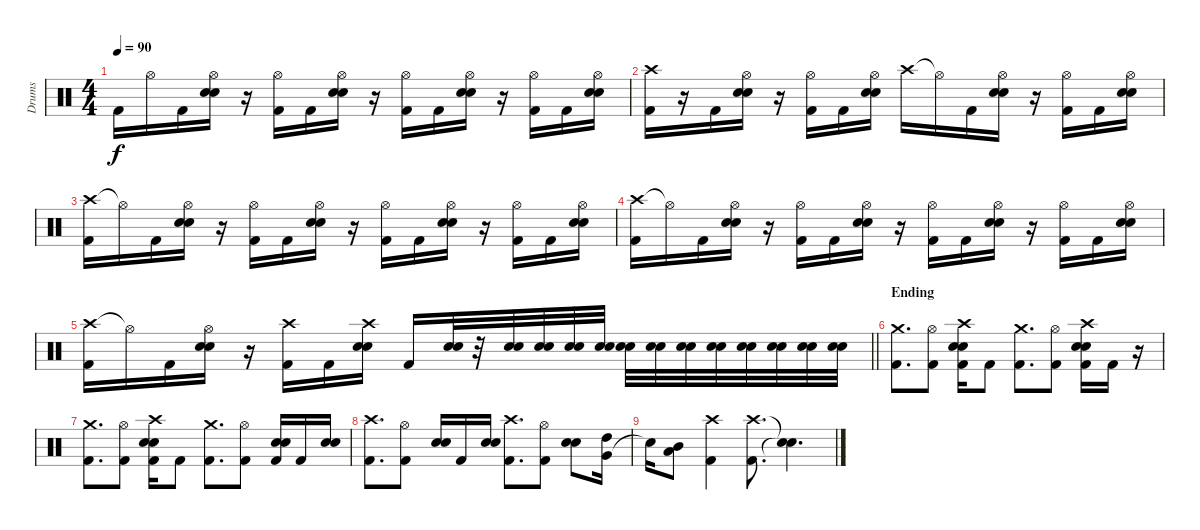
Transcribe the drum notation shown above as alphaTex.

\track ("Drums" "Drums") {instrument percussion}
\staff {score}
\articulation defaults
\ts (4 4)
\tempo 90
\clef neutral
\ks c "Kick (hit) 2".16{dy f} "Hi-Hat (open)".16 "Kick (hit) 2".16
("Hi-Hat (open)" "Snare (hit) 2" "Snare (hit) 2").16 r.16 ("Hi-Hat (open)" "Kick (hit) 2").16 "Kick (hit) 2".16 ("Hi-Hat (open)" "Snare (hit) 2" "Snare (hit) 2").16 r.16 ("Hi-Hat (open)" "Kick (hit) 2").16 "Kick (hit) 2".16 ("Hi-Hat (open)" "Snare (hit) 2" "Snare (hit) 2").16 r.16 ("Hi-Hat (open)" "Kick (hit) 2").16 "Kick (hit) 2".16 ("Hi-Hat (open)" "Snare (hit) 2" "Snare (hit) 2").16 |
("Crash high (hit)" "Kick (hit) 2").16 r.16 "Kick (hit) 2".16 ("Hi-Hat (open)" "Snare (hit) 2" "Snare (hit) 2").16 r.16 ("Hi-Hat (open)" "Kick (hit) 2").16 "Kick (hit) 2".16 ("Hi-Hat (open)" "Snare (hit) 2" "Snare (hit) 2").16 "Crash high (hit)".16 "Hi-Hat (open)"{t}.16 "Kick (hit) 2".16 ("Hi-Hat (open)" "Snare (hit) 2" "Snare (hit) 2").16 r.16 ("Hi-Hat (open)" "Kick (hit) 2").16 "Kick (hit) 2".16 ("Hi-Hat (open)" "Snare (hit) 2" "Snare (hit) 2").16 |
("Crash high (hit)" "Kick (hit) 2").16 "Hi-Hat (open)"{t}.16 "Kick (hit) 2".16 ("Hi-Hat (open)" "Snare (hit) 2" "Snare (hit) 2").16 r.16 ("Hi-Hat (open)" "Kick (hit) 2").16 "Kick (hit) 2".16 ("Hi-Hat (open)" "Snare (hit) 2" "Snare (hit) 2").16 r.16 ("Hi-Hat (open)" "Kick (hit) 2").16 "Kick (hit) 2".16 ("Hi-Hat (open)" "Snare (hit) 2" "Snare (hit) 2").16 r.16 ("Hi-Hat (open)" "Kick (hit) 2").16 "Kick (hit) 2".16 ("Hi-Hat (open)" "Snare (hit) 2" "Snare (hit) 2").16 |
("Crash high (hit)" "Kick (hit) 2").16 "Hi-Hat (open)"{t}.16 "Kick (hit) 2".16 ("Hi-Hat (open)" "Snare (hit) 2" "Snare (hit) 2").16 r.16 ("Hi-Hat (open)" "Kick (hit) 2").16 "Kick (hit) 2".16 ("Hi-Hat (open)" "Snare (hit) 2" "Snare (hit) 2").16 r.16 ("Hi-Hat (open)" "Kick (hit) 2").16 "Kick (hit) 2".16 ("Hi-Hat (open)" "Snare (hit) 2" "Snare (hit) 2").16 r.16 ("Hi-Hat (open)" "Kick (hit) 2").16 "Kick (hit) 2".16 ("Hi-Hat (open)" "Snare (hit) 2" "Snare (hit) 2").16 |
\barLineRight lightlight
("Crash high (hit)" "Kick (hit) 2").16 "Hi-Hat (open)"{t}.16 "Kick (hit) 2".16 ("Hi-Hat (open)" "Snare (hit) 2" "Snare (hit) 2").16 r.16 ("Crash high (hit)" "Kick (hit) 2").16 "Kick (hit) 2".16 ("Crash high (hit)" "Snare (hit) 2" "Snare (hit) 2").16 "Kick (hit) 2".16 ("Snare (hit) 2" "Snare (hit) 2").32 r.32 ("Snare (hit) 2" "Snare (hit) 2").32 ("Snare (hit) 2" "Snare (hit) 2").32 ("Snare (hit) 2" "Snare (hit) 2").32 ("Snare (hit) 2" "Snare (hit) 2").32 ("Snare (hit) 2" "Snare (hit) 2").32 ("Snare (hit) 2" "Snare (hit) 2").32 ("Snare (hit) 2" "Snare (hit) 2").32 ("Snare (hit) 2" "Snare (hit) 2").32 ("Snare (hit) 2" "Snare (hit) 2").32 ("Snare (hit) 2" "Snare (hit) 2").32 ("Snare (hit) 2" "Snare (hit) 2").32 ("Snare (hit) 2" "Snare (hit) 2").32 |
\section ("" "Ending")
("Crash medium (hit)" "Kick (hit) 2").8{d} ("Hi-Hat (open)" "Kick (hit) 2").8 ("Crash high (hit)" "Snare (hit) 2" "Snare (hit) 2" "Kick (hit) 2").16 "Kick (hit) 2".8 ("Crash medium (hit)" "Kick (hit) 2").8{d} ("Hi-Hat (open)" "Kick (hit) 2").8 ("Crash high (hit)" "Snare (hit) 2" "Snare (hit) 2" "Kick (hit) 2").16 "Kick (hit) 2".16 r.16 |
("Crash medium (hit)" "Kick (hit) 2").8{d} ("Hi-Hat (open)" "Kick (hit) 2").8 ("Crash high (hit)" "Snare (hit) 2" "Snare (hit) 2" "Kick (hit) 2").16 "Kick (hit) 2".8 ("Crash medium (hit)" "Kick (hit) 2").8{d} ("Hi-Hat (open)" "Kick (hit) 2").8 ("Snare (hit) 2" "Snare (hit) 2" "Kick (hit) 2").16 "Kick (hit) 2".16 ("Snare (hit) 2" "Snare (hit) 2").16 |
("Crash high (hit)" "Kick (hit) 2").8{d} ("Hi-Hat (open)" "Kick (hit) 2").8 ("Snare (hit) 2" "Snare (hit) 2").16 "Kick (hit) 2".16 ("Snare (hit) 2" "Snare (hit) 2").16 ("Crash high (hit)" "Kick (hit) 2").8{d} ("Hi-Hat (open)" "Kick (hit) 2").8 ("Snare (hit) 2" "Snare (hit) 2").8 ("Very Low Tom (hit)" "High Tom (hit)").16 |
"Snare (hit)"{t}.16 ("Low Floor Tom (hit)" "Mid Tom (hit)").8 ("Crash high (hit)" "Kick (hit) 2").4 ("Crash high (hit)" "Kick (hit) 2").8{d} ("Snare (hit)"{t} "Snare (hit)"{t}).4{d}
